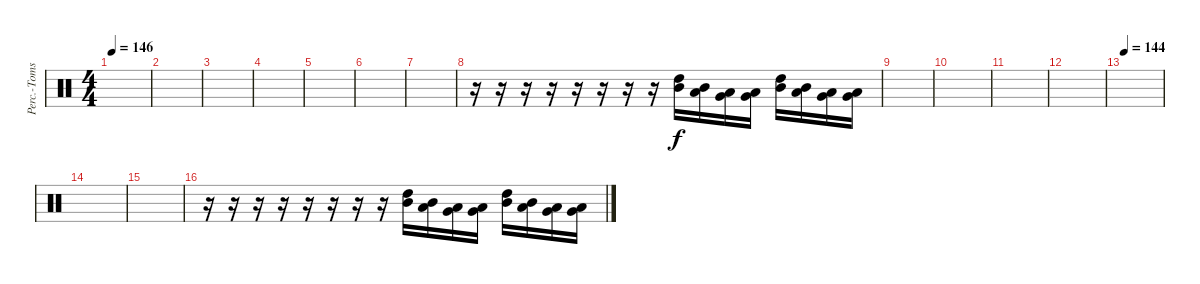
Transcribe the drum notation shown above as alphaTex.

\track ("Perc.-Toms 1" "Perc.-Toms") {instrument percussion}
\staff {score}
\articulation defaults
\ts (4 4)
\tempo 146
\clef neutral
\ks c
|
|
|
|
|
|
|
r.16 r.16 r.16 r.16 r.16 r.16 r.16 r.16 ("High Tom (hit)" "Mid Tom (hit)").16 ("Mid Tom (hit)" "Low Tom (hit)").16 ("Low Tom (hit)" "Very Low Tom (hit)").16 ("Very Low Tom (hit)" "Low Floor Tom (hit)").16 ("High Tom (hit)" "Mid Tom (hit)").16 ("Mid Tom (hit)" "Low Tom (hit)").16 ("Low Tom (hit)" "Very Low Tom (hit)").16 ("Very Low Tom (hit)" "Low Floor Tom (hit)").16 |
|
|
|
|
\tempo 144
|
|
|
r.16 r.16 r.16 r.16 r.16 r.16 r.16 r.16 ("High Tom (hit)" "Mid Tom (hit)").16 ("Mid Tom (hit)" "Low Tom (hit)").16 ("Low Tom (hit)" "Very Low Tom (hit)").16 ("Very Low Tom (hit)" "Low Floor Tom (hit)").16 ("High Tom (hit)" "Mid Tom (hit)").16 ("Mid Tom (hit)" "Low Tom (hit)").16 ("Low Tom (hit)" "Very Low Tom (hit)").16 ("Very Low Tom (hit)" "Low Floor Tom (hit)").16
